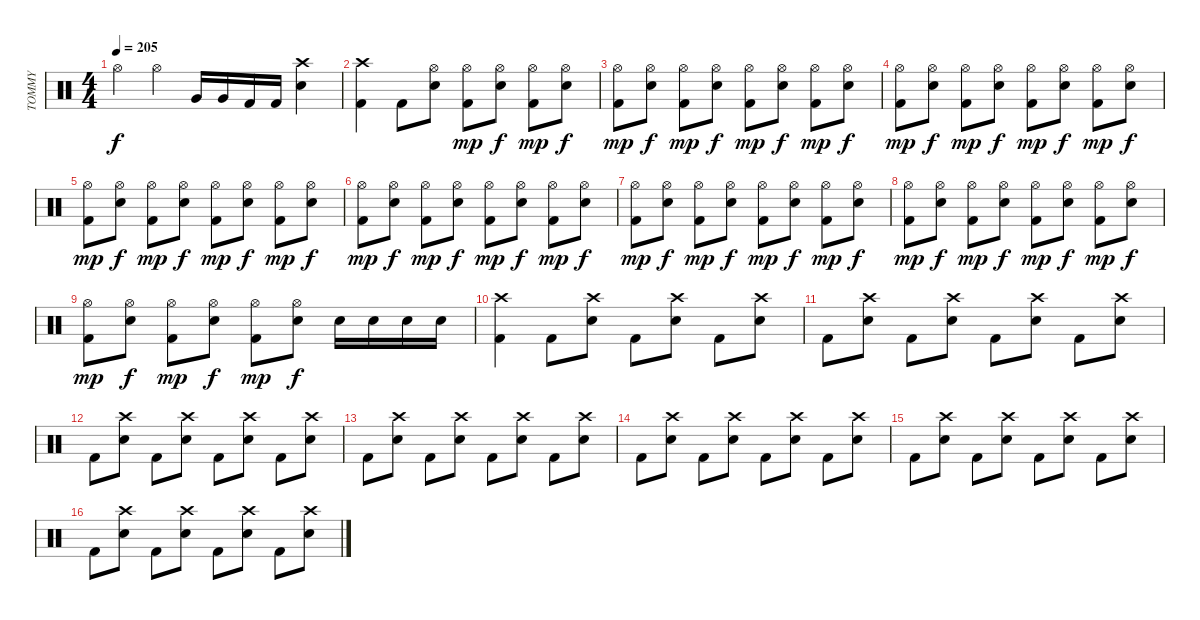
\track ("TOMMY" "TOMMY") {instrument percussion}
\staff {score}
\articulation defaults
\ts (4 4)
\tempo 205
\clef neutral
\ks c "Hi-Hat (open)".4{dy f} "Hi-Hat (open)".4 "Very Low Tom (hit)".16 "Very Low Tom (hit)".16 "Kick (hit) 2".16 "Kick (hit) 2".16
("Snare (hit) 2" "Crash high (hit)").4 |
("Kick (hit) 2" "Crash high (hit)").4 "Kick (hit) 2".8 ("Snare (hit) 2" "Hi-Hat (open)").8 ("Kick (hit) 2" "Hi-Hat (open)").8{dy mp} ("Snare (hit) 2" "Hi-Hat (open)").8{dy f} ("Kick (hit) 2" "Hi-Hat (open)").8{dy mp} ("Snare (hit) 2" "Hi-Hat (open)").8{dy f} |
("Kick (hit) 2" "Hi-Hat (open)").8{dy mp} ("Snare (hit) 2" "Hi-Hat (open)").8{dy f} ("Kick (hit) 2" "Hi-Hat (open)").8{dy mp} ("Snare (hit) 2" "Hi-Hat (open)").8{dy f} ("Kick (hit) 2" "Hi-Hat (open)").8{dy mp} ("Snare (hit) 2" "Hi-Hat (open)").8{dy f} ("Kick (hit) 2" "Hi-Hat (open)").8{dy mp} ("Snare (hit) 2" "Hi-Hat (open)").8{dy f} |
("Kick (hit) 2" "Hi-Hat (open)").8{dy mp} ("Snare (hit) 2" "Hi-Hat (open)").8{dy f} ("Kick (hit) 2" "Hi-Hat (open)").8{dy mp} ("Snare (hit) 2" "Hi-Hat (open)").8{dy f} ("Kick (hit) 2" "Hi-Hat (open)").8{dy mp} ("Snare (hit) 2" "Hi-Hat (open)").8{dy f} ("Kick (hit) 2" "Hi-Hat (open)").8{dy mp} ("Snare (hit) 2" "Hi-Hat (open)").8{dy f} |
("Kick (hit) 2" "Hi-Hat (open)").8{dy mp} ("Snare (hit) 2" "Hi-Hat (open)").8{dy f} ("Kick (hit) 2" "Hi-Hat (open)").8{dy mp} ("Snare (hit) 2" "Hi-Hat (open)").8{dy f} ("Kick (hit) 2" "Hi-Hat (open)").8{dy mp} ("Snare (hit) 2" "Hi-Hat (open)").8{dy f} ("Kick (hit) 2" "Hi-Hat (open)").8{dy mp} ("Snare (hit) 2" "Hi-Hat (open)").8{dy f} |
("Kick (hit) 2" "Hi-Hat (open)").8{dy mp} ("Snare (hit) 2" "Hi-Hat (open)").8{dy f} ("Kick (hit) 2" "Hi-Hat (open)").8{dy mp} ("Snare (hit) 2" "Hi-Hat (open)").8{dy f} ("Kick (hit) 2" "Hi-Hat (open)").8{dy mp} ("Snare (hit) 2" "Hi-Hat (open)").8{dy f} ("Kick (hit) 2" "Hi-Hat (open)").8{dy mp} ("Snare (hit) 2" "Hi-Hat (open)").8{dy f} |
("Kick (hit) 2" "Hi-Hat (open)").8{dy mp} ("Snare (hit) 2" "Hi-Hat (open)").8{dy f} ("Kick (hit) 2" "Hi-Hat (open)").8{dy mp} ("Snare (hit) 2" "Hi-Hat (open)").8{dy f} ("Kick (hit) 2" "Hi-Hat (open)").8{dy mp} ("Snare (hit) 2" "Hi-Hat (open)").8{dy f} ("Kick (hit) 2" "Hi-Hat (open)").8{dy mp} ("Snare (hit) 2" "Hi-Hat (open)").8{dy f} |
("Kick (hit) 2" "Hi-Hat (open)").8{dy mp} ("Snare (hit) 2" "Hi-Hat (open)").8{dy f} ("Kick (hit) 2" "Hi-Hat (open)").8{dy mp} ("Snare (hit) 2" "Hi-Hat (open)").8{dy f} ("Kick (hit) 2" "Hi-Hat (open)").8{dy mp} ("Snare (hit) 2" "Hi-Hat (open)").8{dy f} ("Kick (hit) 2" "Hi-Hat (open)").8{dy mp} ("Snare (hit) 2" "Hi-Hat (open)").8{dy f} |
("Kick (hit) 2" "Hi-Hat (open)").8{dy mp} ("Snare (hit) 2" "Hi-Hat (open)").8{dy f} ("Kick (hit) 2" "Hi-Hat (open)").8{dy mp} ("Snare (hit) 2" "Hi-Hat (open)").8{dy f} ("Kick (hit) 2" "Hi-Hat (open)").8{dy mp} ("Snare (hit) 2" "Hi-Hat (open)").8{dy f} "Snare (hit) 2".16 "Snare (hit) 2".16 "Snare (hit) 2".16 "Snare (hit) 2".16 |
("Kick (hit) 2" "Crash high (hit)").4 "Kick (hit) 2".8 ("Snare (hit) 2" "Crash high (hit)").8 "Kick (hit) 2".8 ("Snare (hit) 2" "Crash high (hit)").8 "Kick (hit) 2".8 ("Snare (hit) 2" "Crash high (hit)").8 |
"Kick (hit) 2".8 ("Snare (hit) 2" "Crash high (hit)").8 "Kick (hit) 2".8 ("Snare (hit) 2" "Crash high (hit)").8 "Kick (hit) 2".8 ("Snare (hit) 2" "Crash high (hit)").8 "Kick (hit) 2".8 ("Snare (hit) 2" "Crash high (hit)").8 |
"Kick (hit) 2".8 ("Snare (hit) 2" "Crash high (hit)").8 "Kick (hit) 2".8 ("Snare (hit) 2" "Crash high (hit)").8 "Kick (hit) 2".8 ("Snare (hit) 2" "Crash high (hit)").8 "Kick (hit) 2".8 ("Snare (hit) 2" "Crash high (hit)").8 |
"Kick (hit) 2".8 ("Snare (hit) 2" "Crash high (hit)").8 "Kick (hit) 2".8 ("Snare (hit) 2" "Crash high (hit)").8 "Kick (hit) 2".8 ("Snare (hit) 2" "Crash high (hit)").8 "Kick (hit) 2".8 ("Snare (hit) 2" "Crash high (hit)").8 |
"Kick (hit) 2".8 ("Snare (hit) 2" "Crash high (hit)").8 "Kick (hit) 2".8 ("Snare (hit) 2" "Crash high (hit)").8 "Kick (hit) 2".8 ("Snare (hit) 2" "Crash high (hit)").8 "Kick (hit) 2".8 ("Snare (hit) 2" "Crash high (hit)").8 |
"Kick (hit) 2".8 ("Snare (hit) 2" "Crash high (hit)").8 "Kick (hit) 2".8 ("Snare (hit) 2" "Crash high (hit)").8 "Kick (hit) 2".8 ("Snare (hit) 2" "Crash high (hit)").8 "Kick (hit) 2".8 ("Snare (hit) 2" "Crash high (hit)").8 |
"Kick (hit) 2".8 ("Snare (hit) 2" "Crash high (hit)").8 "Kick (hit) 2".8 ("Snare (hit) 2" "Crash high (hit)").8 "Kick (hit) 2".8 ("Snare (hit) 2" "Crash high (hit)").8 "Kick (hit) 2".8 ("Snare (hit) 2" "Crash high (hit)").8
